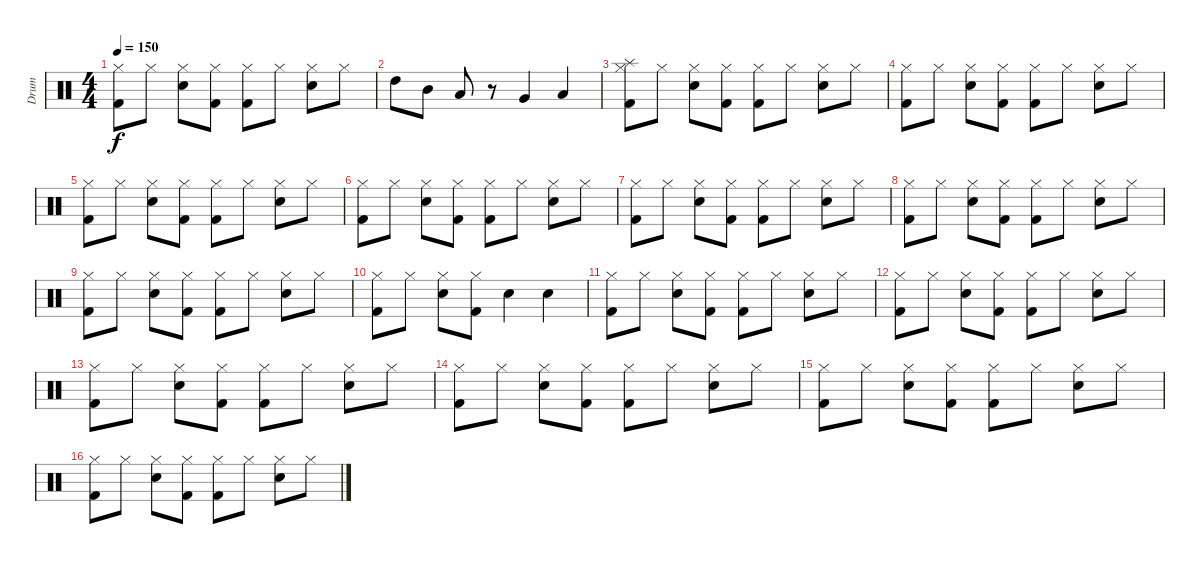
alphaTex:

\track ("Drum" "Drum") {instrument percussion}
\staff {score}
\articulation defaults
\ts (4 4)
\tempo 150
\clef neutral
\ks c
("Kick (hit) 2" "Hi-Hat (closed)").8{dy f} "Hi-Hat (closed)".8 ("Hi-Hat (closed)" "Electric Snare (hit)").8 ("Kick (hit) 2" "Hi-Hat (closed)").8 ("Kick (hit) 2" "Hi-Hat (closed)").8 "Hi-Hat (closed)".8 ("Hi-Hat (closed)" "Electric Snare (hit)").8 "Hi-Hat (closed)".8 |
"High Tom (hit)".8 "Mid Tom (hit)".8 "Low Tom (hit)".8 r.8 "Very Low Tom (hit)".4 "Low Floor Tom (hit)".4 |
("Kick (hit) 2" "Hi-Hat (closed)" "Splash (hit)").8 "Hi-Hat (closed)".8 ("Hi-Hat (closed)" "Electric Snare (hit)").8 ("Kick (hit) 2" "Hi-Hat (closed)").8 ("Kick (hit) 2" "Hi-Hat (closed)").8 "Hi-Hat (closed)".8 ("Hi-Hat (closed)" "Electric Snare (hit)").8 "Hi-Hat (closed)".8 |
("Kick (hit) 2" "Hi-Hat (closed)").8 "Hi-Hat (closed)".8 ("Hi-Hat (closed)" "Electric Snare (hit)").8 ("Kick (hit) 2" "Hi-Hat (closed)").8 ("Kick (hit) 2" "Hi-Hat (closed)").8 "Hi-Hat (closed)".8 ("Hi-Hat (closed)" "Electric Snare (hit)").8 "Hi-Hat (closed)".8 |
("Kick (hit) 2" "Hi-Hat (closed)").8 "Hi-Hat (closed)".8 ("Hi-Hat (closed)" "Electric Snare (hit)").8 ("Kick (hit) 2" "Hi-Hat (closed)").8 ("Kick (hit) 2" "Hi-Hat (closed)").8 "Hi-Hat (closed)".8 ("Hi-Hat (closed)" "Electric Snare (hit)").8 "Hi-Hat (closed)".8 |
("Kick (hit) 2" "Hi-Hat (closed)").8 "Hi-Hat (closed)".8 ("Hi-Hat (closed)" "Electric Snare (hit)").8 ("Kick (hit) 2" "Hi-Hat (closed)").8 ("Kick (hit) 2" "Hi-Hat (closed)").8 "Hi-Hat (closed)".8 ("Hi-Hat (closed)" "Electric Snare (hit)").8 "Hi-Hat (closed)".8 |
("Kick (hit) 2" "Hi-Hat (closed)").8 "Hi-Hat (closed)".8 ("Hi-Hat (closed)" "Electric Snare (hit)").8 ("Kick (hit) 2" "Hi-Hat (closed)").8 ("Kick (hit) 2" "Hi-Hat (closed)").8 "Hi-Hat (closed)".8 ("Hi-Hat (closed)" "Electric Snare (hit)").8 "Hi-Hat (closed)".8 |
("Kick (hit) 2" "Hi-Hat (closed)").8 "Hi-Hat (closed)".8 ("Hi-Hat (closed)" "Electric Snare (hit)").8 ("Kick (hit) 2" "Hi-Hat (closed)").8 ("Kick (hit) 2" "Hi-Hat (closed)").8 "Hi-Hat (closed)".8 ("Hi-Hat (closed)" "Electric Snare (hit)").8 "Hi-Hat (closed)".8 |
("Kick (hit) 2" "Hi-Hat (closed)").8 "Hi-Hat (closed)".8 ("Hi-Hat (closed)" "Electric Snare (hit)").8 ("Kick (hit) 2" "Hi-Hat (closed)").8 ("Kick (hit) 2" "Hi-Hat (closed)").8 "Hi-Hat (closed)".8 ("Hi-Hat (closed)" "Electric Snare (hit)").8 "Hi-Hat (closed)".8 |
("Kick (hit) 2" "Hi-Hat (closed)").8 "Hi-Hat (closed)".8 ("Hi-Hat (closed)" "Electric Snare (hit)").8 ("Kick (hit) 2" "Hi-Hat (closed)").8 "Electric Snare (hit)".4 "Snare (hit) 2".4 |
("Kick (hit) 2" "Hi-Hat (closed)").8 "Hi-Hat (closed)".8 ("Hi-Hat (closed)" "Electric Snare (hit)").8 ("Kick (hit) 2" "Hi-Hat (closed)").8 ("Kick (hit) 2" "Hi-Hat (closed)").8 "Hi-Hat (closed)".8 ("Hi-Hat (closed)" "Electric Snare (hit)").8 "Hi-Hat (closed)".8 |
("Kick (hit) 2" "Hi-Hat (closed)").8 "Hi-Hat (closed)".8 ("Hi-Hat (closed)" "Electric Snare (hit)").8 ("Kick (hit) 2" "Hi-Hat (closed)").8 ("Kick (hit) 2" "Hi-Hat (closed)").8 "Hi-Hat (closed)".8 ("Hi-Hat (closed)" "Electric Snare (hit)").8 "Hi-Hat (closed)".8 |
("Kick (hit) 2" "Hi-Hat (closed)").8 "Hi-Hat (closed)".8 ("Hi-Hat (closed)" "Electric Snare (hit)").8 ("Kick (hit) 2" "Hi-Hat (closed)").8 ("Kick (hit) 2" "Hi-Hat (closed)").8 "Hi-Hat (closed)".8 ("Hi-Hat (closed)" "Electric Snare (hit)").8 "Hi-Hat (closed)".8 |
("Kick (hit) 2" "Hi-Hat (closed)").8 "Hi-Hat (closed)".8 ("Hi-Hat (closed)" "Electric Snare (hit)").8 ("Kick (hit) 2" "Hi-Hat (closed)").8 ("Kick (hit) 2" "Hi-Hat (closed)").8 "Hi-Hat (closed)".8 ("Hi-Hat (closed)" "Electric Snare (hit)").8 "Hi-Hat (closed)".8 |
("Kick (hit) 2" "Hi-Hat (closed)").8 "Hi-Hat (closed)".8 ("Hi-Hat (closed)" "Electric Snare (hit)").8 ("Kick (hit) 2" "Hi-Hat (closed)").8 ("Kick (hit) 2" "Hi-Hat (closed)").8 "Hi-Hat (closed)".8 ("Hi-Hat (closed)" "Electric Snare (hit)").8 "Hi-Hat (closed)".8 |
("Kick (hit) 2" "Hi-Hat (closed)").8 "Hi-Hat (closed)".8 ("Hi-Hat (closed)" "Electric Snare (hit)").8 ("Kick (hit) 2" "Hi-Hat (closed)").8 ("Kick (hit) 2" "Hi-Hat (closed)").8 "Hi-Hat (closed)".8 ("Hi-Hat (closed)" "Electric Snare (hit)").8 "Hi-Hat (closed)".8
